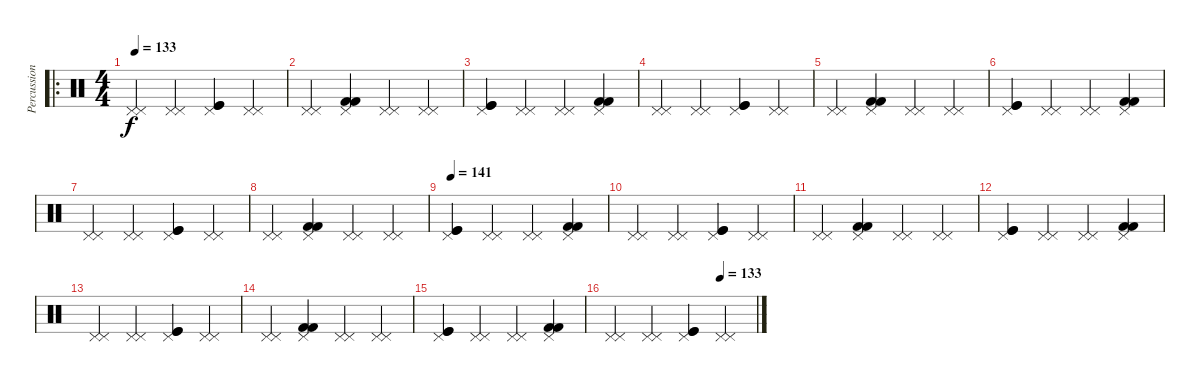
\track ("Percussions" "Percussion") {instrument percussion}
\staff {score}
\articulation defaults
\ro
\ts (4 4)
\tempo 133
\clef neutral
\ks c
("Pedal Hi-Hat (hit)" "Pedal Hi-Hat (hit)").4{dy f} ("Pedal Hi-Hat (hit)" "Pedal Hi-Hat (hit)").4 ("Pedal Hi-Hat (hit)" "Kick (hit)" "Kick (hit)").4 ("Pedal Hi-Hat (hit)" "Pedal Hi-Hat (hit)").4 |
("Pedal Hi-Hat (hit)" "Pedal Hi-Hat (hit)").4 ("Pedal Hi-Hat (hit)" "Kick (hit) 2" "Kick (hit) 2").4 ("Pedal Hi-Hat (hit)" "Pedal Hi-Hat (hit)").4 ("Pedal Hi-Hat (hit)" "Pedal Hi-Hat (hit)").4 |
("Pedal Hi-Hat (hit)" "Kick (hit)" "Kick (hit)").4 ("Pedal Hi-Hat (hit)" "Pedal Hi-Hat (hit)").4 ("Pedal Hi-Hat (hit)" "Pedal Hi-Hat (hit)").4 ("Pedal Hi-Hat (hit)" "Kick (hit) 2" "Kick (hit) 2").4 |
("Pedal Hi-Hat (hit)" "Pedal Hi-Hat (hit)").4 ("Pedal Hi-Hat (hit)" "Pedal Hi-Hat (hit)").4 ("Pedal Hi-Hat (hit)" "Kick (hit)" "Kick (hit)").4 ("Pedal Hi-Hat (hit)" "Pedal Hi-Hat (hit)").4 |
("Pedal Hi-Hat (hit)" "Pedal Hi-Hat (hit)").4 ("Pedal Hi-Hat (hit)" "Kick (hit) 2" "Kick (hit) 2").4 ("Pedal Hi-Hat (hit)" "Pedal Hi-Hat (hit)").4 ("Pedal Hi-Hat (hit)" "Pedal Hi-Hat (hit)").4 |
("Pedal Hi-Hat (hit)" "Kick (hit)" "Kick (hit)").4 ("Pedal Hi-Hat (hit)" "Pedal Hi-Hat (hit)").4 ("Pedal Hi-Hat (hit)" "Pedal Hi-Hat (hit)").4 ("Pedal Hi-Hat (hit)" "Kick (hit) 2" "Kick (hit) 2").4 |
("Pedal Hi-Hat (hit)" "Pedal Hi-Hat (hit)").4 ("Pedal Hi-Hat (hit)" "Pedal Hi-Hat (hit)").4 ("Pedal Hi-Hat (hit)" "Kick (hit)" "Kick (hit)").4 ("Pedal Hi-Hat (hit)" "Pedal Hi-Hat (hit)").4 |
("Pedal Hi-Hat (hit)" "Pedal Hi-Hat (hit)").4 ("Pedal Hi-Hat (hit)" "Kick (hit) 2" "Kick (hit) 2").4 ("Pedal Hi-Hat (hit)" "Pedal Hi-Hat (hit)").4 ("Pedal Hi-Hat (hit)" "Pedal Hi-Hat (hit)").4 |
\tempo 141
("Pedal Hi-Hat (hit)" "Kick (hit)" "Kick (hit)").4 ("Pedal Hi-Hat (hit)" "Pedal Hi-Hat (hit)").4 ("Pedal Hi-Hat (hit)" "Pedal Hi-Hat (hit)").4 ("Pedal Hi-Hat (hit)" "Kick (hit) 2" "Kick (hit) 2").4 |
("Pedal Hi-Hat (hit)" "Pedal Hi-Hat (hit)").4 ("Pedal Hi-Hat (hit)" "Pedal Hi-Hat (hit)").4 ("Pedal Hi-Hat (hit)" "Kick (hit)" "Kick (hit)").4 ("Pedal Hi-Hat (hit)" "Pedal Hi-Hat (hit)").4 |
("Pedal Hi-Hat (hit)" "Pedal Hi-Hat (hit)").4 ("Pedal Hi-Hat (hit)" "Kick (hit) 2" "Kick (hit) 2").4 ("Pedal Hi-Hat (hit)" "Pedal Hi-Hat (hit)").4 ("Pedal Hi-Hat (hit)" "Pedal Hi-Hat (hit)").4 |
("Pedal Hi-Hat (hit)" "Kick (hit)" "Kick (hit)").4 ("Pedal Hi-Hat (hit)" "Pedal Hi-Hat (hit)").4 ("Pedal Hi-Hat (hit)" "Pedal Hi-Hat (hit)").4 ("Pedal Hi-Hat (hit)" "Kick (hit) 2" "Kick (hit) 2").4 |
("Pedal Hi-Hat (hit)" "Pedal Hi-Hat (hit)").4 ("Pedal Hi-Hat (hit)" "Pedal Hi-Hat (hit)").4 ("Pedal Hi-Hat (hit)" "Kick (hit)" "Kick (hit)").4 ("Pedal Hi-Hat (hit)" "Pedal Hi-Hat (hit)").4 |
("Pedal Hi-Hat (hit)" "Pedal Hi-Hat (hit)").4 ("Pedal Hi-Hat (hit)" "Kick (hit) 2" "Kick (hit) 2").4 ("Pedal Hi-Hat (hit)" "Pedal Hi-Hat (hit)").4 ("Pedal Hi-Hat (hit)" "Pedal Hi-Hat (hit)").4 |
("Pedal Hi-Hat (hit)" "Kick (hit)" "Kick (hit)").4 ("Pedal Hi-Hat (hit)" "Pedal Hi-Hat (hit)").4 ("Pedal Hi-Hat (hit)" "Pedal Hi-Hat (hit)").4 ("Pedal Hi-Hat (hit)" "Kick (hit) 2" "Kick (hit) 2").4 |
\tempo (133 0.75)
("Pedal Hi-Hat (hit)" "Pedal Hi-Hat (hit)").4 ("Pedal Hi-Hat (hit)" "Pedal Hi-Hat (hit)").4 ("Pedal Hi-Hat (hit)" "Kick (hit)" "Kick (hit)").4 ("Pedal Hi-Hat (hit)" "Pedal Hi-Hat (hit)").4
